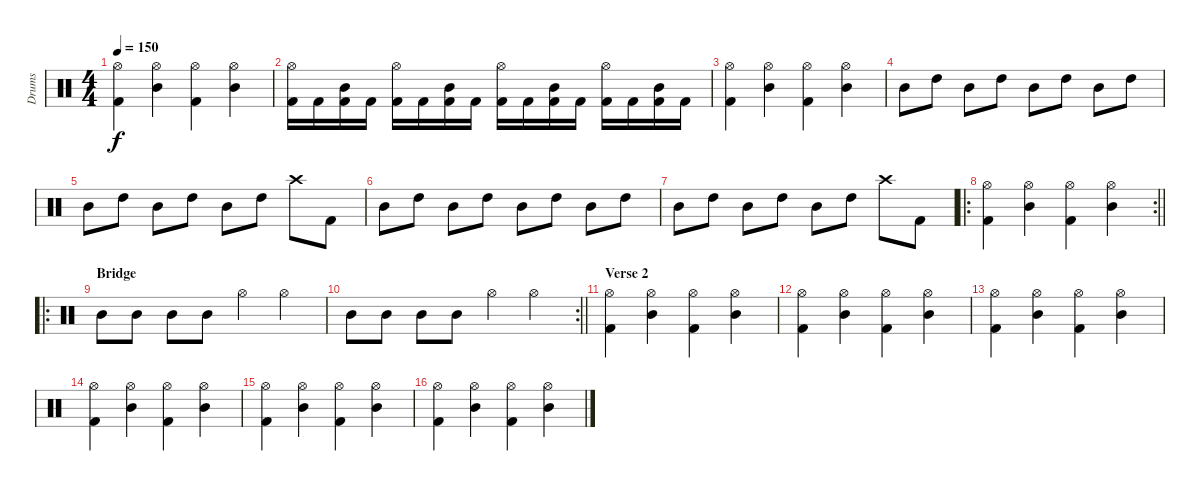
\track ("Drums" "Drums") {instrument percussion}
\staff {score}
\articulation defaults
\ts (4 4)
\tempo 150
\clef neutral
\ks c
("Kick (hit) 2" "Hi-Hat (open)").4{dy f} ("Mid Tom (hit)" "Hi-Hat (open)").4 ("Kick (hit) 2" "Hi-Hat (open)").4 ("Mid Tom (hit)" "Hi-Hat (open)").4 |
("Kick (hit) 2" "Hi-Hat (open)").16 "Kick (hit) 2".16 ("Kick (hit) 2" "Mid Tom (hit)").16 "Kick (hit) 2".16 ("Kick (hit) 2" "Hi-Hat (open)").16 "Kick (hit) 2".16 ("Kick (hit) 2" "Mid Tom (hit)").16 "Kick (hit) 2".16 ("Kick (hit) 2" "Hi-Hat (open)").16 "Kick (hit) 2".16 ("Kick (hit) 2" "Mid Tom (hit)").16 "Kick (hit) 2".16 ("Kick (hit) 2" "Hi-Hat (open)").16 "Kick (hit) 2".16 ("Kick (hit) 2" "Mid Tom (hit)").16 "Kick (hit) 2".16 |
("Kick (hit) 2" "Hi-Hat (open)").4 ("Mid Tom (hit)" "Hi-Hat (open)").4 ("Kick (hit) 2" "Hi-Hat (open)").4 ("Mid Tom (hit)" "Hi-Hat (open)").4 |
"Mid Tom (hit)".8 "High Tom (hit)".8 "Mid Tom (hit)".8 "High Tom (hit)".8 "Mid Tom (hit)".8 "High Tom (hit)".8 "Mid Tom (hit)".8 "High Tom (hit)".8 |
"Mid Tom (hit)".8 "High Tom (hit)".8 "Mid Tom (hit)".8 "High Tom (hit)".8 "Mid Tom (hit)".8 "High Tom (hit)".8 "Crash high (hit)".8 "Kick (hit) 2".8 |
"Mid Tom (hit)".8 "High Tom (hit)".8 "Mid Tom (hit)".8 "High Tom (hit)".8 "Mid Tom (hit)".8 "High Tom (hit)".8 "Mid Tom (hit)".8 "High Tom (hit)".8 |
"Mid Tom (hit)".8 "High Tom (hit)".8 "Mid Tom (hit)".8 "High Tom (hit)".8 "Mid Tom (hit)".8 "High Tom (hit)".8 "Crash high (hit)".8 "Kick (hit) 2".8 |
\ro
\rc 2
\barLineRight lightlight
("Kick (hit) 2" "Hi-Hat (open)").4 ("Mid Tom (hit)" "Hi-Hat (open)").4 ("Kick (hit) 2" "Hi-Hat (open)").4 ("Mid Tom (hit)" "Hi-Hat (open)").4 |
\ro
\section ("" "Bridge")
"Mid Tom (hit)".8 "Mid Tom (hit)".8 "Mid Tom (hit)".8 "Mid Tom (hit)".8 "Hi-Hat (open)".4 "Hi-Hat (open)".4 |
\rc 2
\barLineRight lightlight "Mid Tom (hit)".8 "Mid Tom (hit)".8 "Mid Tom (hit)".8 "Mid Tom (hit)".8 "Hi-Hat (open)".4 "Hi-Hat (open)".4
|
\section ("" "Verse 2")
("Kick (hit) 2" "Hi-Hat (open)").4 ("Mid Tom (hit)" "Hi-Hat (open)").4 ("Kick (hit) 2" "Hi-Hat (open)").4 ("Mid Tom (hit)" "Hi-Hat (open)").4 |
("Kick (hit) 2" "Hi-Hat (open)").4 ("Mid Tom (hit)" "Hi-Hat (open)").4 ("Kick (hit) 2" "Hi-Hat (open)").4 ("Mid Tom (hit)" "Hi-Hat (open)").4 |
("Kick (hit) 2" "Hi-Hat (open)").4 ("Mid Tom (hit)" "Hi-Hat (open)").4 ("Kick (hit) 2" "Hi-Hat (open)").4 ("Mid Tom (hit)" "Hi-Hat (open)").4 |
("Kick (hit) 2" "Hi-Hat (open)").4 ("Mid Tom (hit)" "Hi-Hat (open)").4 ("Kick (hit) 2" "Hi-Hat (open)").4 ("Mid Tom (hit)" "Hi-Hat (open)").4 |
("Kick (hit) 2" "Hi-Hat (open)").4 ("Mid Tom (hit)" "Hi-Hat (open)").4 ("Kick (hit) 2" "Hi-Hat (open)").4 ("Mid Tom (hit)" "Hi-Hat (open)").4 |
("Kick (hit) 2" "Hi-Hat (open)").4 ("Mid Tom (hit)" "Hi-Hat (open)").4 ("Kick (hit) 2" "Hi-Hat (open)").4 ("Mid Tom (hit)" "Hi-Hat (open)").4
